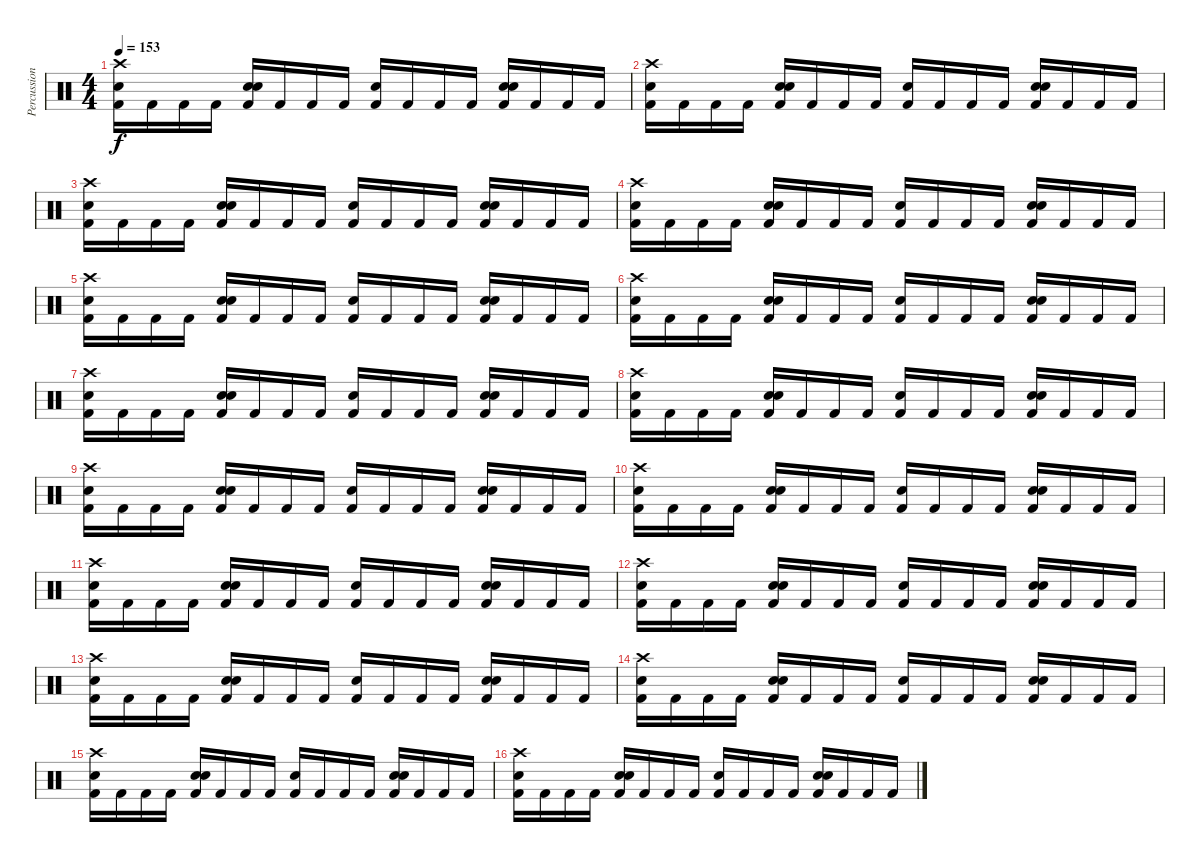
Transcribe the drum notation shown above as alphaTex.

\track ("Percussion" "Percussion") {instrument percussion}
\staff {score}
\articulation defaults
\ts (4 4)
\tempo 153
\clef neutral
\ks c
("Crash high (hit)" "Snare (hit) 2" "Kick (hit) 2").16{dy f} "Kick (hit) 2".16 "Kick (hit) 2".16 "Kick (hit) 2".16 ("Hand Clap (hit)" "Snare (hit) 2" "Kick (hit) 2").16 "Kick (hit) 2".16 "Kick (hit) 2".16 "Kick (hit) 2".16 ("Snare (hit) 2" "Kick (hit) 2").16 "Kick (hit) 2".16 "Kick (hit) 2".16 "Kick (hit) 2".16 ("Hand Clap (hit)" "Snare (hit) 2" "Kick (hit) 2").16 "Kick (hit) 2".16 "Kick (hit) 2".16 "Kick (hit) 2".16 |
("Crash high (hit)" "Snare (hit) 2" "Kick (hit) 2").16 "Kick (hit) 2".16 "Kick (hit) 2".16 "Kick (hit) 2".16 ("Hand Clap (hit)" "Snare (hit) 2" "Kick (hit) 2").16 "Kick (hit) 2".16 "Kick (hit) 2".16 "Kick (hit) 2".16 ("Snare (hit) 2" "Kick (hit) 2").16 "Kick (hit) 2".16 "Kick (hit) 2".16 "Kick (hit) 2".16 ("Hand Clap (hit)" "Snare (hit) 2" "Kick (hit) 2").16 "Kick (hit) 2".16 "Kick (hit) 2".16 "Kick (hit) 2".16 |
("Crash high (hit)" "Snare (hit) 2" "Kick (hit) 2").16 "Kick (hit) 2".16 "Kick (hit) 2".16 "Kick (hit) 2".16 ("Hand Clap (hit)" "Snare (hit) 2" "Kick (hit) 2").16 "Kick (hit) 2".16 "Kick (hit) 2".16 "Kick (hit) 2".16 ("Snare (hit) 2" "Kick (hit) 2").16 "Kick (hit) 2".16 "Kick (hit) 2".16 "Kick (hit) 2".16 ("Hand Clap (hit)" "Snare (hit) 2" "Kick (hit) 2").16 "Kick (hit) 2".16 "Kick (hit) 2".16 "Kick (hit) 2".16 |
("Crash high (hit)" "Snare (hit) 2" "Kick (hit) 2").16 "Kick (hit) 2".16 "Kick (hit) 2".16 "Kick (hit) 2".16 ("Hand Clap (hit)" "Snare (hit) 2" "Kick (hit) 2").16 "Kick (hit) 2".16 "Kick (hit) 2".16 "Kick (hit) 2".16 ("Snare (hit) 2" "Kick (hit) 2").16 "Kick (hit) 2".16 "Kick (hit) 2".16 "Kick (hit) 2".16 ("Hand Clap (hit)" "Snare (hit) 2" "Kick (hit) 2").16 "Kick (hit) 2".16 "Kick (hit) 2".16 "Kick (hit) 2".16 |
("Crash high (hit)" "Snare (hit) 2" "Kick (hit) 2").16 "Kick (hit) 2".16 "Kick (hit) 2".16 "Kick (hit) 2".16 ("Hand Clap (hit)" "Snare (hit) 2" "Kick (hit) 2").16 "Kick (hit) 2".16 "Kick (hit) 2".16 "Kick (hit) 2".16 ("Snare (hit) 2" "Kick (hit) 2").16 "Kick (hit) 2".16 "Kick (hit) 2".16 "Kick (hit) 2".16 ("Hand Clap (hit)" "Snare (hit) 2" "Kick (hit) 2").16 "Kick (hit) 2".16 "Kick (hit) 2".16 "Kick (hit) 2".16 |
("Crash high (hit)" "Snare (hit) 2" "Kick (hit) 2").16 "Kick (hit) 2".16 "Kick (hit) 2".16 "Kick (hit) 2".16 ("Hand Clap (hit)" "Snare (hit) 2" "Kick (hit) 2").16 "Kick (hit) 2".16 "Kick (hit) 2".16 "Kick (hit) 2".16 ("Snare (hit) 2" "Kick (hit) 2").16 "Kick (hit) 2".16 "Kick (hit) 2".16 "Kick (hit) 2".16 ("Hand Clap (hit)" "Snare (hit) 2" "Kick (hit) 2").16 "Kick (hit) 2".16 "Kick (hit) 2".16 "Kick (hit) 2".16 |
("Crash high (hit)" "Snare (hit) 2" "Kick (hit) 2").16 "Kick (hit) 2".16 "Kick (hit) 2".16 "Kick (hit) 2".16 ("Hand Clap (hit)" "Snare (hit) 2" "Kick (hit) 2").16 "Kick (hit) 2".16 "Kick (hit) 2".16 "Kick (hit) 2".16 ("Snare (hit) 2" "Kick (hit) 2").16 "Kick (hit) 2".16 "Kick (hit) 2".16 "Kick (hit) 2".16 ("Hand Clap (hit)" "Snare (hit) 2" "Kick (hit) 2").16 "Kick (hit) 2".16 "Kick (hit) 2".16 "Kick (hit) 2".16 |
("Crash high (hit)" "Snare (hit) 2" "Kick (hit) 2").16 "Kick (hit) 2".16 "Kick (hit) 2".16 "Kick (hit) 2".16 ("Hand Clap (hit)" "Snare (hit) 2" "Kick (hit) 2").16 "Kick (hit) 2".16 "Kick (hit) 2".16 "Kick (hit) 2".16 ("Snare (hit) 2" "Kick (hit) 2").16 "Kick (hit) 2".16 "Kick (hit) 2".16 "Kick (hit) 2".16 ("Hand Clap (hit)" "Snare (hit) 2" "Kick (hit) 2").16 "Kick (hit) 2".16 "Kick (hit) 2".16 "Kick (hit) 2".16 |
("Crash high (hit)" "Snare (hit) 2" "Kick (hit) 2").16 "Kick (hit) 2".16 "Kick (hit) 2".16 "Kick (hit) 2".16 ("Hand Clap (hit)" "Snare (hit) 2" "Kick (hit) 2").16 "Kick (hit) 2".16 "Kick (hit) 2".16 "Kick (hit) 2".16 ("Snare (hit) 2" "Kick (hit) 2").16 "Kick (hit) 2".16 "Kick (hit) 2".16 "Kick (hit) 2".16 ("Hand Clap (hit)" "Snare (hit) 2" "Kick (hit) 2").16 "Kick (hit) 2".16 "Kick (hit) 2".16 "Kick (hit) 2".16 |
("Crash high (hit)" "Snare (hit) 2" "Kick (hit) 2").16 "Kick (hit) 2".16 "Kick (hit) 2".16 "Kick (hit) 2".16 ("Hand Clap (hit)" "Snare (hit) 2" "Kick (hit) 2").16 "Kick (hit) 2".16 "Kick (hit) 2".16 "Kick (hit) 2".16 ("Snare (hit) 2" "Kick (hit) 2").16 "Kick (hit) 2".16 "Kick (hit) 2".16 "Kick (hit) 2".16 ("Hand Clap (hit)" "Snare (hit) 2" "Kick (hit) 2").16 "Kick (hit) 2".16 "Kick (hit) 2".16 "Kick (hit) 2".16 |
("Crash high (hit)" "Snare (hit) 2" "Kick (hit) 2").16 "Kick (hit) 2".16 "Kick (hit) 2".16 "Kick (hit) 2".16 ("Hand Clap (hit)" "Snare (hit) 2" "Kick (hit) 2").16 "Kick (hit) 2".16 "Kick (hit) 2".16 "Kick (hit) 2".16 ("Snare (hit) 2" "Kick (hit) 2").16 "Kick (hit) 2".16 "Kick (hit) 2".16 "Kick (hit) 2".16 ("Hand Clap (hit)" "Snare (hit) 2" "Kick (hit) 2").16 "Kick (hit) 2".16 "Kick (hit) 2".16 "Kick (hit) 2".16 |
("Crash high (hit)" "Snare (hit) 2" "Kick (hit) 2").16 "Kick (hit) 2".16 "Kick (hit) 2".16 "Kick (hit) 2".16 ("Hand Clap (hit)" "Snare (hit) 2" "Kick (hit) 2").16 "Kick (hit) 2".16 "Kick (hit) 2".16 "Kick (hit) 2".16 ("Snare (hit) 2" "Kick (hit) 2").16 "Kick (hit) 2".16 "Kick (hit) 2".16 "Kick (hit) 2".16 ("Hand Clap (hit)" "Snare (hit) 2" "Kick (hit) 2").16 "Kick (hit) 2".16 "Kick (hit) 2".16 "Kick (hit) 2".16 |
("Crash high (hit)" "Snare (hit) 2" "Kick (hit) 2").16 "Kick (hit) 2".16 "Kick (hit) 2".16 "Kick (hit) 2".16 ("Hand Clap (hit)" "Snare (hit) 2" "Kick (hit) 2").16 "Kick (hit) 2".16 "Kick (hit) 2".16 "Kick (hit) 2".16 ("Snare (hit) 2" "Kick (hit) 2").16 "Kick (hit) 2".16 "Kick (hit) 2".16 "Kick (hit) 2".16 ("Hand Clap (hit)" "Snare (hit) 2" "Kick (hit) 2").16 "Kick (hit) 2".16 "Kick (hit) 2".16 "Kick (hit) 2".16 |
("Crash high (hit)" "Snare (hit) 2" "Kick (hit) 2").16 "Kick (hit) 2".16 "Kick (hit) 2".16 "Kick (hit) 2".16 ("Hand Clap (hit)" "Snare (hit) 2" "Kick (hit) 2").16 "Kick (hit) 2".16 "Kick (hit) 2".16 "Kick (hit) 2".16 ("Snare (hit) 2" "Kick (hit) 2").16 "Kick (hit) 2".16 "Kick (hit) 2".16 "Kick (hit) 2".16 ("Hand Clap (hit)" "Snare (hit) 2" "Kick (hit) 2").16 "Kick (hit) 2".16 "Kick (hit) 2".16 "Kick (hit) 2".16 |
("Crash high (hit)" "Snare (hit) 2" "Kick (hit) 2").16 "Kick (hit) 2".16 "Kick (hit) 2".16 "Kick (hit) 2".16 ("Hand Clap (hit)" "Snare (hit) 2" "Kick (hit) 2").16 "Kick (hit) 2".16 "Kick (hit) 2".16 "Kick (hit) 2".16 ("Snare (hit) 2" "Kick (hit) 2").16 "Kick (hit) 2".16 "Kick (hit) 2".16 "Kick (hit) 2".16 ("Hand Clap (hit)" "Snare (hit) 2" "Kick (hit) 2").16 "Kick (hit) 2".16 "Kick (hit) 2".16 "Kick (hit) 2".16 |
("Crash high (hit)" "Snare (hit) 2" "Kick (hit) 2").16 "Kick (hit) 2".16 "Kick (hit) 2".16 "Kick (hit) 2".16 ("Hand Clap (hit)" "Snare (hit) 2" "Kick (hit) 2").16 "Kick (hit) 2".16 "Kick (hit) 2".16 "Kick (hit) 2".16 ("Snare (hit) 2" "Kick (hit) 2").16 "Kick (hit) 2".16 "Kick (hit) 2".16 "Kick (hit) 2".16 ("Hand Clap (hit)" "Snare (hit) 2" "Kick (hit) 2").16 "Kick (hit) 2".16 "Kick (hit) 2".16 "Kick (hit) 2".16
